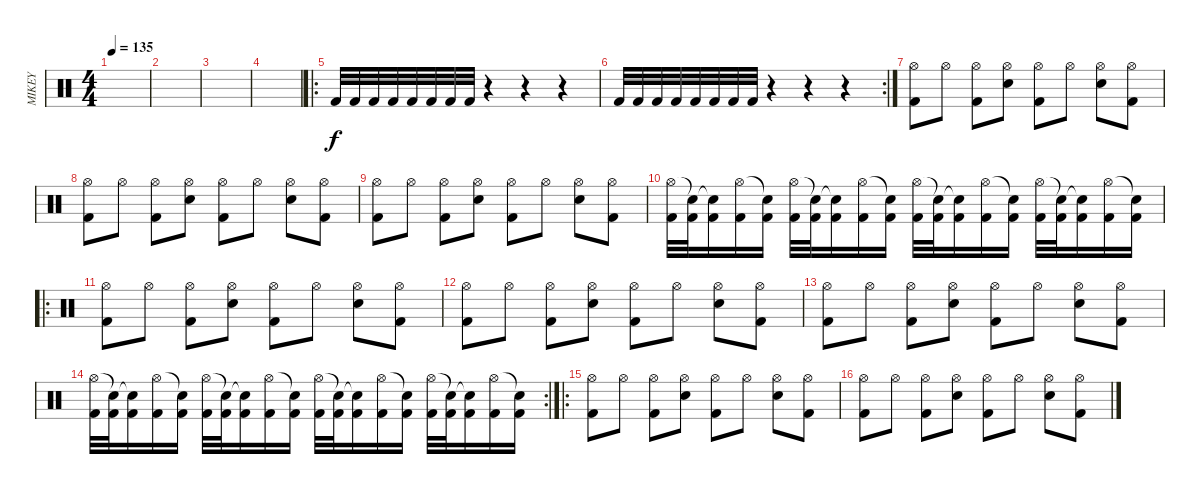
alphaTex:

\track ("MIKEY" "MIKEY") {instrument percussion}
\staff {score}
\articulation defaults
\ts (4 4)
\tempo 135
\clef neutral
\ks c
|
|
|
|
\ro "Kick (hit) 2".32 "Kick (hit) 2".32 "Kick (hit) 2".32 "Kick (hit) 2".32 "Kick (hit) 2".32 "Kick (hit) 2".32 "Kick (hit) 2".32 "Kick (hit) 2".32
r.4 r.4 r.4 |
\rc 2 "Kick (hit) 2".32 "Kick (hit) 2".32 "Kick (hit) 2".32 "Kick (hit) 2".32 "Kick (hit) 2".32 "Kick (hit) 2".32 "Kick (hit) 2".32 "Kick (hit) 2".32
r.4 r.4 r.4 |
("Kick (hit) 2" "Hi-Hat (open)").8 "Hi-Hat (open)".8 ("Kick (hit) 2" "Hi-Hat (open)").8 ("Snare (hit) 2" "Hi-Hat (open)").8 ("Kick (hit) 2" "Hi-Hat (open)").8 "Hi-Hat (open)".8 ("Snare (hit) 2" "Hi-Hat (open)").8 ("Kick (hit) 2" "Hi-Hat (open)").8 |
("Kick (hit) 2" "Hi-Hat (open)").8 "Hi-Hat (open)".8 ("Kick (hit) 2" "Hi-Hat (open)").8 ("Snare (hit) 2" "Hi-Hat (open)").8 ("Kick (hit) 2" "Hi-Hat (open)").8 "Hi-Hat (open)".8 ("Snare (hit) 2" "Hi-Hat (open)").8 ("Kick (hit) 2" "Hi-Hat (open)").8 |
("Kick (hit) 2" "Hi-Hat (open)").8 "Hi-Hat (open)".8 ("Kick (hit) 2" "Hi-Hat (open)").8 ("Snare (hit) 2" "Hi-Hat (open)").8 ("Kick (hit) 2" "Hi-Hat (open)").8 "Hi-Hat (open)".8 ("Snare (hit) 2" "Hi-Hat (open)").8 ("Kick (hit) 2" "Hi-Hat (open)").8 |
("Hi-Hat (open)" "Kick (hit) 2").32 ("Snare (hit)"{t} "Kick (hit) 2").32 ("Snare (hit)"{t} "Kick (hit) 2").16 ("Hi-Hat (open)" "Kick (hit) 2").16 ("Snare (hit)"{t} "Kick (hit) 2").16 ("Hi-Hat (open)" "Kick (hit) 2").32 ("Snare (hit)"{t} "Kick (hit) 2").32 ("Snare (hit)"{t} "Kick (hit) 2").16 ("Hi-Hat (open)" "Kick (hit) 2").16 ("Snare (hit)"{t} "Kick (hit) 2").16 ("Hi-Hat (open)" "Kick (hit) 2").32 ("Snare (hit)"{t} "Kick (hit) 2").32 ("Snare (hit)"{t} "Kick (hit) 2").16 ("Hi-Hat (open)" "Kick (hit) 2").16 ("Snare (hit)"{t} "Kick (hit) 2").16 ("Hi-Hat (open)" "Kick (hit) 2").32 ("Snare (hit)"{t} "Kick (hit) 2").32 ("Snare (hit)"{t} "Kick (hit) 2").16 ("Hi-Hat (open)" "Kick (hit) 2").16 ("Snare (hit)"{t} "Kick (hit) 2").16 |
\ro
("Kick (hit) 2" "Hi-Hat (open)").8 "Hi-Hat (open)".8 ("Kick (hit) 2" "Hi-Hat (open)").8 ("Snare (hit) 2" "Hi-Hat (open)").8 ("Kick (hit) 2" "Hi-Hat (open)").8 "Hi-Hat (open)".8 ("Snare (hit) 2" "Hi-Hat (open)").8 ("Kick (hit) 2" "Hi-Hat (open)").8 |
("Kick (hit) 2" "Hi-Hat (open)").8 "Hi-Hat (open)".8 ("Kick (hit) 2" "Hi-Hat (open)").8 ("Snare (hit) 2" "Hi-Hat (open)").8 ("Kick (hit) 2" "Hi-Hat (open)").8 "Hi-Hat (open)".8 ("Snare (hit) 2" "Hi-Hat (open)").8 ("Kick (hit) 2" "Hi-Hat (open)").8 |
("Kick (hit) 2" "Hi-Hat (open)").8 "Hi-Hat (open)".8 ("Kick (hit) 2" "Hi-Hat (open)").8 ("Snare (hit) 2" "Hi-Hat (open)").8 ("Kick (hit) 2" "Hi-Hat (open)").8 "Hi-Hat (open)".8 ("Snare (hit) 2" "Hi-Hat (open)").8 ("Kick (hit) 2" "Hi-Hat (open)").8 |
\rc 2
("Hi-Hat (open)" "Kick (hit) 2").32 ("Snare (hit)"{t} "Kick (hit) 2").32 ("Snare (hit)"{t} "Kick (hit) 2").16 ("Hi-Hat (open)" "Kick (hit) 2").16 ("Snare (hit)"{t} "Kick (hit) 2").16 ("Hi-Hat (open)" "Kick (hit) 2").32 ("Snare (hit)"{t} "Kick (hit) 2").32 ("Snare (hit)"{t} "Kick (hit) 2").16 ("Hi-Hat (open)" "Kick (hit) 2").16 ("Snare (hit)"{t} "Kick (hit) 2").16 ("Hi-Hat (open)" "Kick (hit) 2").32 ("Snare (hit)"{t} "Kick (hit) 2").32 ("Snare (hit)"{t} "Kick (hit) 2").16 ("Hi-Hat (open)" "Kick (hit) 2").16 ("Snare (hit)"{t} "Kick (hit) 2").16 ("Hi-Hat (open)" "Kick (hit) 2").32 ("Snare (hit)"{t} "Kick (hit) 2").32 ("Snare (hit)"{t} "Kick (hit) 2").16 ("Hi-Hat (open)" "Kick (hit) 2").16 ("Snare (hit)"{t} "Kick (hit) 2").16 |
\ro
("Kick (hit) 2" "Hi-Hat (open)").8 "Hi-Hat (open)".8 ("Kick (hit) 2" "Hi-Hat (open)").8 ("Snare (hit) 2" "Hi-Hat (open)").8 ("Kick (hit) 2" "Hi-Hat (open)").8 "Hi-Hat (open)".8 ("Snare (hit) 2" "Hi-Hat (open)").8 ("Kick (hit) 2" "Hi-Hat (open)").8 |
("Kick (hit) 2" "Hi-Hat (open)").8 "Hi-Hat (open)".8 ("Kick (hit) 2" "Hi-Hat (open)").8 ("Snare (hit) 2" "Hi-Hat (open)").8 ("Kick (hit) 2" "Hi-Hat (open)").8 "Hi-Hat (open)".8 ("Snare (hit) 2" "Hi-Hat (open)").8 ("Kick (hit) 2" "Hi-Hat (open)").8
